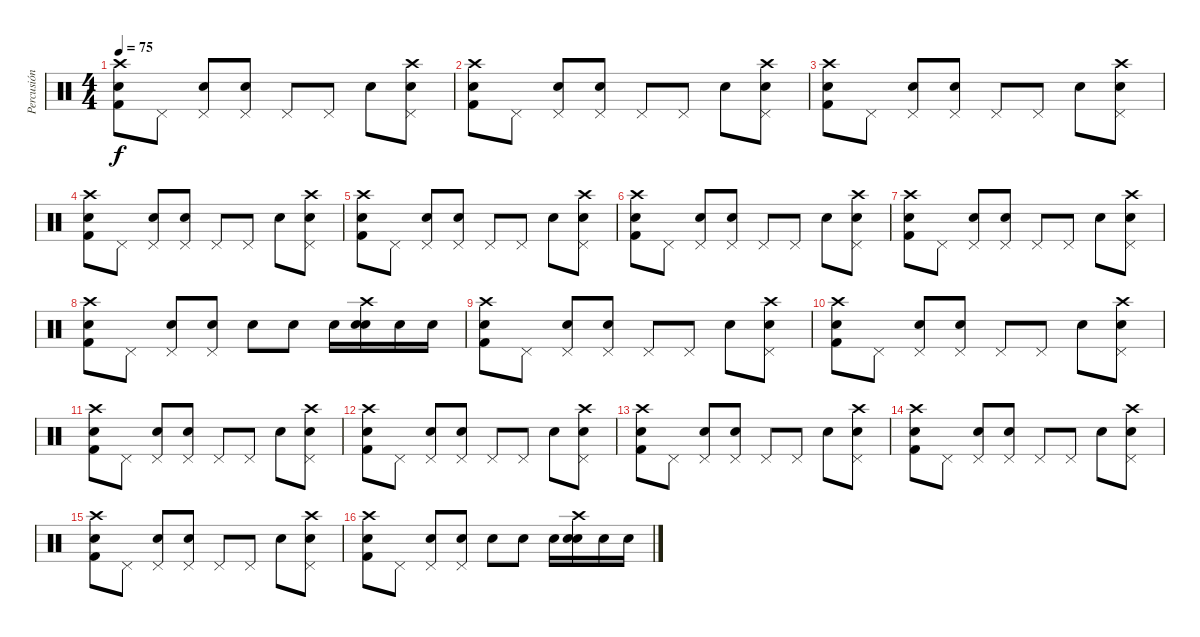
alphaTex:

\track ("Percusión" "Percusión") {instrument percussion}
\staff {score}
\articulation defaults
\ts (4 4)
\tempo 75
\clef neutral
\ks c
("Crash high (hit)" "Kick (hit) 2" "Electric Snare (hit)").8{dy f} "Pedal Hi-Hat (hit)".8 ("Pedal Hi-Hat (hit)" "Electric Snare (hit)").8 ("Electric Snare (hit)" "Pedal Hi-Hat (hit)").8 "Pedal Hi-Hat (hit)".8 "Pedal Hi-Hat (hit)".8 "Electric Snare (hit)".8 ("Crash high (hit)" "Pedal Hi-Hat (hit)" "Electric Snare (hit)").8 |
("Crash high (hit)" "Kick (hit) 2" "Electric Snare (hit)").8 "Pedal Hi-Hat (hit)".8 ("Pedal Hi-Hat (hit)" "Electric Snare (hit)").8 ("Electric Snare (hit)" "Pedal Hi-Hat (hit)").8 "Pedal Hi-Hat (hit)".8 "Pedal Hi-Hat (hit)".8 "Electric Snare (hit)".8 ("Crash high (hit)" "Pedal Hi-Hat (hit)" "Electric Snare (hit)").8 |
("Crash high (hit)" "Kick (hit) 2" "Electric Snare (hit)").8 "Pedal Hi-Hat (hit)".8 ("Pedal Hi-Hat (hit)" "Electric Snare (hit)").8 ("Electric Snare (hit)" "Pedal Hi-Hat (hit)").8 "Pedal Hi-Hat (hit)".8 "Pedal Hi-Hat (hit)".8 "Electric Snare (hit)".8 ("Crash high (hit)" "Pedal Hi-Hat (hit)" "Electric Snare (hit)").8 |
("Crash high (hit)" "Kick (hit) 2" "Electric Snare (hit)").8 "Pedal Hi-Hat (hit)".8 ("Pedal Hi-Hat (hit)" "Electric Snare (hit)").8 ("Electric Snare (hit)" "Pedal Hi-Hat (hit)").8 "Pedal Hi-Hat (hit)".8 "Pedal Hi-Hat (hit)".8 "Electric Snare (hit)".8 ("Crash high (hit)" "Pedal Hi-Hat (hit)" "Electric Snare (hit)").8 |
("Crash high (hit)" "Kick (hit) 2" "Electric Snare (hit)").8 "Pedal Hi-Hat (hit)".8 ("Pedal Hi-Hat (hit)" "Electric Snare (hit)").8 ("Electric Snare (hit)" "Pedal Hi-Hat (hit)").8 "Pedal Hi-Hat (hit)".8 "Pedal Hi-Hat (hit)".8 "Electric Snare (hit)".8 ("Crash high (hit)" "Pedal Hi-Hat (hit)" "Electric Snare (hit)").8 |
("Crash high (hit)" "Kick (hit) 2" "Electric Snare (hit)").8 "Pedal Hi-Hat (hit)".8 ("Pedal Hi-Hat (hit)" "Electric Snare (hit)").8 ("Electric Snare (hit)" "Pedal Hi-Hat (hit)").8 "Pedal Hi-Hat (hit)".8 "Pedal Hi-Hat (hit)".8 "Electric Snare (hit)".8 ("Crash high (hit)" "Pedal Hi-Hat (hit)" "Electric Snare (hit)").8 |
("Crash high (hit)" "Kick (hit) 2" "Electric Snare (hit)").8 "Pedal Hi-Hat (hit)".8 ("Pedal Hi-Hat (hit)" "Electric Snare (hit)").8 ("Electric Snare (hit)" "Pedal Hi-Hat (hit)").8 "Pedal Hi-Hat (hit)".8 "Pedal Hi-Hat (hit)".8 "Electric Snare (hit)".8 ("Crash high (hit)" "Pedal Hi-Hat (hit)" "Electric Snare (hit)").8 |
("Crash high (hit)" "Kick (hit) 2" "Electric Snare (hit)").8 "Pedal Hi-Hat (hit)".8 ("Pedal Hi-Hat (hit)" "Electric Snare (hit)").8 ("Electric Snare (hit)" "Pedal Hi-Hat (hit)").8 "Electric Snare (hit)".8 "Electric Snare (hit)".8 "Electric Snare (hit)".16 ("Crash high (hit)" "Electric Snare (hit)" "Electric Snare (hit)").16 "Electric Snare (hit)".16 "Electric Snare (hit)".16 |
("Crash high (hit)" "Kick (hit) 2" "Electric Snare (hit)").8 "Pedal Hi-Hat (hit)".8 ("Pedal Hi-Hat (hit)" "Electric Snare (hit)").8 ("Electric Snare (hit)" "Pedal Hi-Hat (hit)").8 "Pedal Hi-Hat (hit)".8 "Pedal Hi-Hat (hit)".8 "Electric Snare (hit)".8 ("Crash high (hit)" "Pedal Hi-Hat (hit)" "Electric Snare (hit)").8 |
("Crash high (hit)" "Kick (hit) 2" "Electric Snare (hit)").8 "Pedal Hi-Hat (hit)".8 ("Pedal Hi-Hat (hit)" "Electric Snare (hit)").8 ("Electric Snare (hit)" "Pedal Hi-Hat (hit)").8 "Pedal Hi-Hat (hit)".8 "Pedal Hi-Hat (hit)".8 "Electric Snare (hit)".8 ("Crash high (hit)" "Pedal Hi-Hat (hit)" "Electric Snare (hit)").8 |
("Crash high (hit)" "Kick (hit) 2" "Electric Snare (hit)").8 "Pedal Hi-Hat (hit)".8 ("Pedal Hi-Hat (hit)" "Electric Snare (hit)").8 ("Electric Snare (hit)" "Pedal Hi-Hat (hit)").8 "Pedal Hi-Hat (hit)".8 "Pedal Hi-Hat (hit)".8 "Electric Snare (hit)".8 ("Crash high (hit)" "Pedal Hi-Hat (hit)" "Electric Snare (hit)").8 |
("Crash high (hit)" "Kick (hit) 2" "Electric Snare (hit)").8 "Pedal Hi-Hat (hit)".8 ("Pedal Hi-Hat (hit)" "Electric Snare (hit)").8 ("Electric Snare (hit)" "Pedal Hi-Hat (hit)").8 "Pedal Hi-Hat (hit)".8 "Pedal Hi-Hat (hit)".8 "Electric Snare (hit)".8 ("Crash high (hit)" "Pedal Hi-Hat (hit)" "Electric Snare (hit)").8 |
("Crash high (hit)" "Kick (hit) 2" "Electric Snare (hit)").8 "Pedal Hi-Hat (hit)".8 ("Pedal Hi-Hat (hit)" "Electric Snare (hit)").8 ("Electric Snare (hit)" "Pedal Hi-Hat (hit)").8 "Pedal Hi-Hat (hit)".8 "Pedal Hi-Hat (hit)".8 "Electric Snare (hit)".8 ("Crash high (hit)" "Pedal Hi-Hat (hit)" "Electric Snare (hit)").8 |
("Crash high (hit)" "Kick (hit) 2" "Electric Snare (hit)").8 "Pedal Hi-Hat (hit)".8 ("Pedal Hi-Hat (hit)" "Electric Snare (hit)").8 ("Electric Snare (hit)" "Pedal Hi-Hat (hit)").8 "Pedal Hi-Hat (hit)".8 "Pedal Hi-Hat (hit)".8 "Electric Snare (hit)".8 ("Crash high (hit)" "Pedal Hi-Hat (hit)" "Electric Snare (hit)").8 |
("Crash high (hit)" "Kick (hit) 2" "Electric Snare (hit)").8 "Pedal Hi-Hat (hit)".8 ("Pedal Hi-Hat (hit)" "Electric Snare (hit)").8 ("Electric Snare (hit)" "Pedal Hi-Hat (hit)").8 "Pedal Hi-Hat (hit)".8 "Pedal Hi-Hat (hit)".8 "Electric Snare (hit)".8 ("Crash high (hit)" "Pedal Hi-Hat (hit)" "Electric Snare (hit)").8 |
("Crash high (hit)" "Kick (hit) 2" "Electric Snare (hit)").8 "Pedal Hi-Hat (hit)".8 ("Pedal Hi-Hat (hit)" "Electric Snare (hit)").8 ("Electric Snare (hit)" "Pedal Hi-Hat (hit)").8 "Electric Snare (hit)".8 "Electric Snare (hit)".8 "Electric Snare (hit)".16 ("Crash high (hit)" "Electric Snare (hit)" "Electric Snare (hit)").16 "Electric Snare (hit)".16 "Electric Snare (hit)".16
